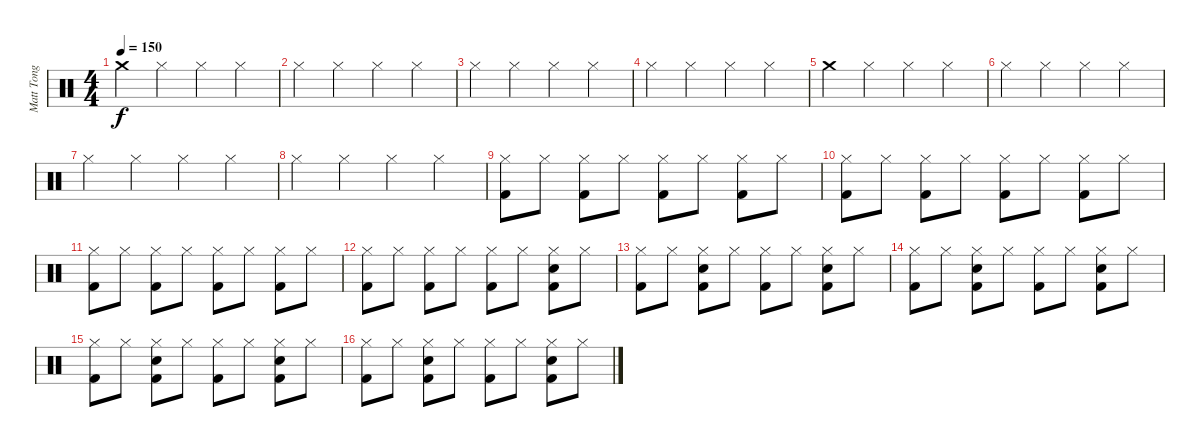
\track ("Matt Tong" "Matt Tong") {instrument percussion}
\staff {score}
\articulation defaults
\ts (4 4)
\tempo 150
\clef neutral
\ks c "Crash medium (hit)".4{dy f} "Hi-Hat (closed)".4 "Hi-Hat (closed)".4 "Hi-Hat (closed)".4
|
"Hi-Hat (closed)".4 "Hi-Hat (closed)".4 "Hi-Hat (closed)".4 "Hi-Hat (closed)".4 |
"Hi-Hat (closed)".4 "Hi-Hat (closed)".4 "Hi-Hat (closed)".4 "Hi-Hat (closed)".4 |
"Hi-Hat (closed)".4 "Hi-Hat (closed)".4 "Hi-Hat (closed)".4 "Hi-Hat (closed)".4 |
"Crash medium (hit)".4 "Hi-Hat (closed)".4 "Hi-Hat (closed)".4 "Hi-Hat (closed)".4 |
"Hi-Hat (closed)".4 "Hi-Hat (closed)".4 "Hi-Hat (closed)".4 "Hi-Hat (closed)".4 |
"Hi-Hat (closed)".4 "Hi-Hat (closed)".4 "Hi-Hat (closed)".4 "Hi-Hat (closed)".4 |
"Hi-Hat (closed)".4 "Hi-Hat (closed)".4 "Hi-Hat (closed)".4 "Hi-Hat (closed)".4 |
("Hi-Hat (closed)" "Kick (hit) 2").8 "Hi-Hat (closed)".8 ("Hi-Hat (closed)" "Kick (hit) 2").8 "Hi-Hat (closed)".8 ("Hi-Hat (closed)" "Kick (hit) 2").8 "Hi-Hat (closed)".8 ("Hi-Hat (closed)" "Kick (hit) 2").8 "Hi-Hat (closed)".8 |
("Hi-Hat (closed)" "Kick (hit) 2").8 "Hi-Hat (closed)".8 ("Hi-Hat (closed)" "Kick (hit) 2").8 "Hi-Hat (closed)".8 ("Hi-Hat (closed)" "Kick (hit) 2").8 "Hi-Hat (closed)".8 ("Hi-Hat (closed)" "Kick (hit) 2").8 "Hi-Hat (closed)".8 |
("Hi-Hat (closed)" "Kick (hit) 2").8 "Hi-Hat (closed)".8 ("Hi-Hat (closed)" "Kick (hit) 2").8 "Hi-Hat (closed)".8 ("Hi-Hat (closed)" "Kick (hit) 2").8 "Hi-Hat (closed)".8 ("Hi-Hat (closed)" "Kick (hit) 2").8 "Hi-Hat (closed)".8 |
("Hi-Hat (closed)" "Kick (hit) 2").8 "Hi-Hat (closed)".8 ("Hi-Hat (closed)" "Kick (hit) 2").8 "Hi-Hat (closed)".8 ("Hi-Hat (closed)" "Kick (hit) 2").8 "Hi-Hat (closed)".8 ("Hi-Hat (closed)" "Electric Snare (hit)" "Kick (hit) 2").8 "Hi-Hat (closed)".8 |
("Hi-Hat (closed)" "Kick (hit) 2").8 "Hi-Hat (closed)".8 ("Hi-Hat (closed)" "Electric Snare (hit)" "Kick (hit) 2").8 "Hi-Hat (closed)".8 ("Hi-Hat (closed)" "Kick (hit) 2").8 "Hi-Hat (closed)".8 ("Hi-Hat (closed)" "Electric Snare (hit)" "Kick (hit) 2").8 "Hi-Hat (closed)".8 |
("Hi-Hat (closed)" "Kick (hit) 2").8 "Hi-Hat (closed)".8 ("Hi-Hat (closed)" "Electric Snare (hit)" "Kick (hit) 2").8 "Hi-Hat (closed)".8 ("Hi-Hat (closed)" "Kick (hit) 2").8 "Hi-Hat (closed)".8 ("Hi-Hat (closed)" "Electric Snare (hit)" "Kick (hit) 2").8 "Hi-Hat (closed)".8 |
("Hi-Hat (closed)" "Kick (hit) 2").8 "Hi-Hat (closed)".8 ("Hi-Hat (closed)" "Electric Snare (hit)" "Kick (hit) 2").8 "Hi-Hat (closed)".8 ("Hi-Hat (closed)" "Kick (hit) 2").8 "Hi-Hat (closed)".8 ("Hi-Hat (closed)" "Electric Snare (hit)" "Kick (hit) 2").8 "Hi-Hat (closed)".8 |
("Hi-Hat (closed)" "Kick (hit) 2").8 "Hi-Hat (closed)".8 ("Hi-Hat (closed)" "Electric Snare (hit)" "Kick (hit) 2").8 "Hi-Hat (closed)".8 ("Hi-Hat (closed)" "Kick (hit) 2").8 "Hi-Hat (closed)".8 ("Hi-Hat (closed)" "Electric Snare (hit)" "Kick (hit) 2").8 "Hi-Hat (closed)".8
